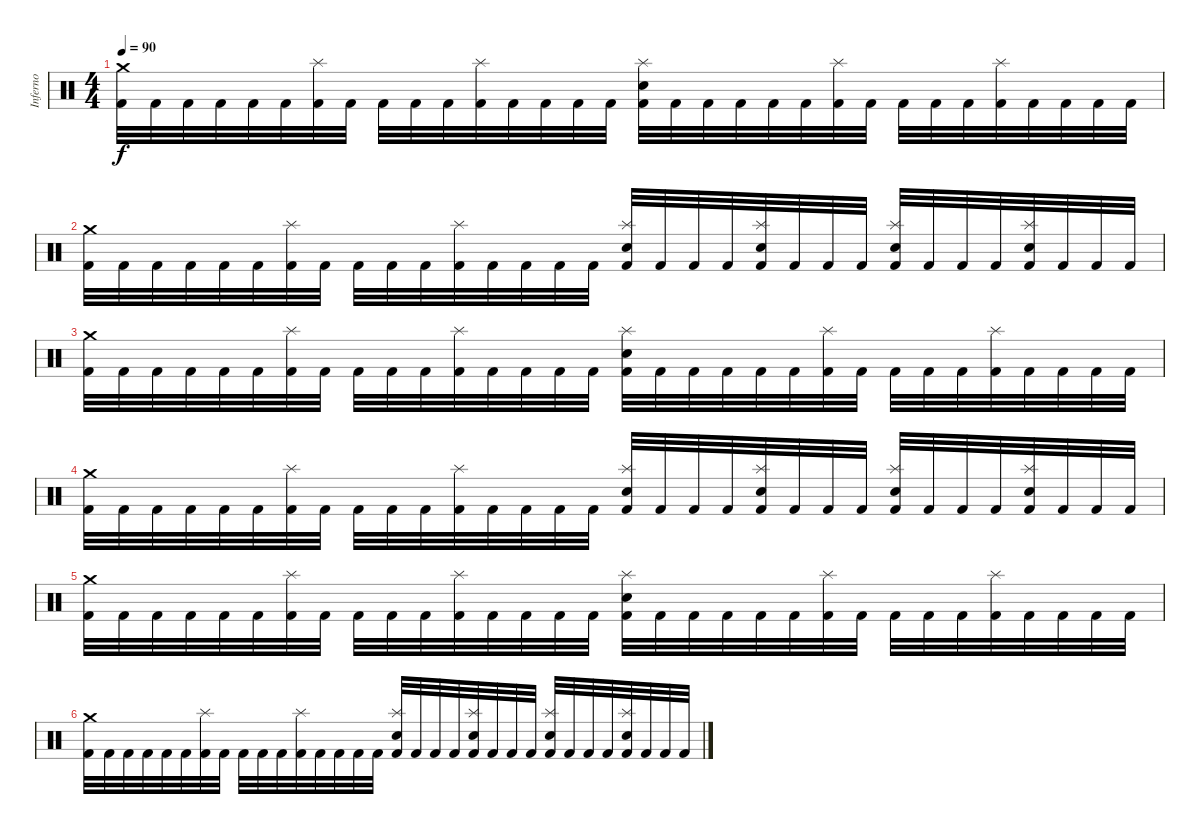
\track ("Inferno" "Inferno") {instrument percussion}
\staff {score}
\articulation defaults
\ts (4 4)
\tempo 90
\clef neutral
\ks c
("Crash medium (hit)" "Kick (hit) 2").32{dy f} "Kick (hit) 2".32 "Kick (hit) 2".32 "Kick (hit) 2".32 "Kick (hit) 2".32 "Kick (hit) 2".32 ("Splash (hit)" "Kick (hit) 2").32 "Kick (hit) 2".32 "Kick (hit) 2".32 "Kick (hit) 2".32 "Kick (hit) 2".32 ("Splash (hit)" "Kick (hit) 2").32 "Kick (hit) 2".32 "Kick (hit) 2".32 "Kick (hit) 2".32 "Kick (hit) 2".32 ("Splash (hit)" "Electric Snare (hit)" "Kick (hit) 2").32 "Kick (hit) 2".32 "Kick (hit) 2".32 "Kick (hit) 2".32 "Kick (hit) 2".32 "Kick (hit) 2".32 ("Splash (hit)" "Kick (hit) 2").32 "Kick (hit) 2".32 "Kick (hit) 2".32 "Kick (hit) 2".32 "Kick (hit) 2".32 ("Splash (hit)" "Kick (hit) 2").32 "Kick (hit) 2".32 "Kick (hit) 2".32 "Kick (hit) 2".32 "Kick (hit) 2".32 |
("Crash medium (hit)" "Kick (hit) 2").32 "Kick (hit) 2".32 "Kick (hit) 2".32 "Kick (hit) 2".32 "Kick (hit) 2".32 "Kick (hit) 2".32 ("Splash (hit)" "Kick (hit) 2").32 "Kick (hit) 2".32 "Kick (hit) 2".32 "Kick (hit) 2".32 "Kick (hit) 2".32 ("Splash (hit)" "Kick (hit) 2").32 "Kick (hit) 2".32 "Kick (hit) 2".32 "Kick (hit) 2".32 "Kick (hit) 2".32 ("Splash (hit)" "Electric Snare (hit)" "Kick (hit) 2").32 "Kick (hit) 2".32 "Kick (hit) 2".32 "Kick (hit) 2".32 ("Splash (hit)" "Electric Snare (hit)" "Kick (hit) 2").32 "Kick (hit) 2".32 "Kick (hit) 2".32 "Kick (hit) 2".32 ("Splash (hit)" "Electric Snare (hit)" "Kick (hit) 2").32 "Kick (hit) 2".32 "Kick (hit) 2".32 "Kick (hit) 2".32 ("Splash (hit)" "Electric Snare (hit)" "Kick (hit) 2").32 "Kick (hit) 2".32 "Kick (hit) 2".32 "Kick (hit) 2".32 |
("Crash medium (hit)" "Kick (hit) 2").32 "Kick (hit) 2".32 "Kick (hit) 2".32 "Kick (hit) 2".32 "Kick (hit) 2".32 "Kick (hit) 2".32 ("Splash (hit)" "Kick (hit) 2").32 "Kick (hit) 2".32 "Kick (hit) 2".32 "Kick (hit) 2".32 "Kick (hit) 2".32 ("Splash (hit)" "Kick (hit) 2").32 "Kick (hit) 2".32 "Kick (hit) 2".32 "Kick (hit) 2".32 "Kick (hit) 2".32 ("Splash (hit)" "Electric Snare (hit)" "Kick (hit) 2").32 "Kick (hit) 2".32 "Kick (hit) 2".32 "Kick (hit) 2".32 "Kick (hit) 2".32 "Kick (hit) 2".32 ("Splash (hit)" "Kick (hit) 2").32 "Kick (hit) 2".32 "Kick (hit) 2".32 "Kick (hit) 2".32 "Kick (hit) 2".32 ("Splash (hit)" "Kick (hit) 2").32 "Kick (hit) 2".32 "Kick (hit) 2".32 "Kick (hit) 2".32 "Kick (hit) 2".32 |
("Crash medium (hit)" "Kick (hit) 2").32 "Kick (hit) 2".32 "Kick (hit) 2".32 "Kick (hit) 2".32 "Kick (hit) 2".32 "Kick (hit) 2".32 ("Splash (hit)" "Kick (hit) 2").32 "Kick (hit) 2".32 "Kick (hit) 2".32 "Kick (hit) 2".32 "Kick (hit) 2".32 ("Splash (hit)" "Kick (hit) 2").32 "Kick (hit) 2".32 "Kick (hit) 2".32 "Kick (hit) 2".32 "Kick (hit) 2".32 ("Splash (hit)" "Electric Snare (hit)" "Kick (hit) 2").32 "Kick (hit) 2".32 "Kick (hit) 2".32 "Kick (hit) 2".32 ("Splash (hit)" "Electric Snare (hit)" "Kick (hit) 2").32 "Kick (hit) 2".32 "Kick (hit) 2".32 "Kick (hit) 2".32 ("Splash (hit)" "Electric Snare (hit)" "Kick (hit) 2").32 "Kick (hit) 2".32 "Kick (hit) 2".32 "Kick (hit) 2".32 ("Splash (hit)" "Electric Snare (hit)" "Kick (hit) 2").32 "Kick (hit) 2".32 "Kick (hit) 2".32 "Kick (hit) 2".32 |
("Crash medium (hit)" "Kick (hit) 2").32 "Kick (hit) 2".32 "Kick (hit) 2".32 "Kick (hit) 2".32 "Kick (hit) 2".32 "Kick (hit) 2".32 ("Splash (hit)" "Kick (hit) 2").32 "Kick (hit) 2".32 "Kick (hit) 2".32 "Kick (hit) 2".32 "Kick (hit) 2".32 ("Splash (hit)" "Kick (hit) 2").32 "Kick (hit) 2".32 "Kick (hit) 2".32 "Kick (hit) 2".32 "Kick (hit) 2".32 ("Splash (hit)" "Electric Snare (hit)" "Kick (hit) 2").32 "Kick (hit) 2".32 "Kick (hit) 2".32 "Kick (hit) 2".32 "Kick (hit) 2".32 "Kick (hit) 2".32 ("Splash (hit)" "Kick (hit) 2").32 "Kick (hit) 2".32 "Kick (hit) 2".32 "Kick (hit) 2".32 "Kick (hit) 2".32 ("Splash (hit)" "Kick (hit) 2").32 "Kick (hit) 2".32 "Kick (hit) 2".32 "Kick (hit) 2".32 "Kick (hit) 2".32 |
("Crash medium (hit)" "Kick (hit) 2").32 "Kick (hit) 2".32 "Kick (hit) 2".32 "Kick (hit) 2".32 "Kick (hit) 2".32 "Kick (hit) 2".32 ("Splash (hit)" "Kick (hit) 2").32 "Kick (hit) 2".32 "Kick (hit) 2".32 "Kick (hit) 2".32 "Kick (hit) 2".32 ("Splash (hit)" "Kick (hit) 2").32 "Kick (hit) 2".32 "Kick (hit) 2".32 "Kick (hit) 2".32 "Kick (hit) 2".32 ("Splash (hit)" "Electric Snare (hit)" "Kick (hit) 2").32 "Kick (hit) 2".32 "Kick (hit) 2".32 "Kick (hit) 2".32 ("Splash (hit)" "Electric Snare (hit)" "Kick (hit) 2").32 "Kick (hit) 2".32 "Kick (hit) 2".32 "Kick (hit) 2".32 ("Splash (hit)" "Electric Snare (hit)" "Kick (hit) 2").32 "Kick (hit) 2".32 "Kick (hit) 2".32 "Kick (hit) 2".32 ("Splash (hit)" "Electric Snare (hit)" "Kick (hit) 2").32 "Kick (hit) 2".32 "Kick (hit) 2".32 "Kick (hit) 2".32
